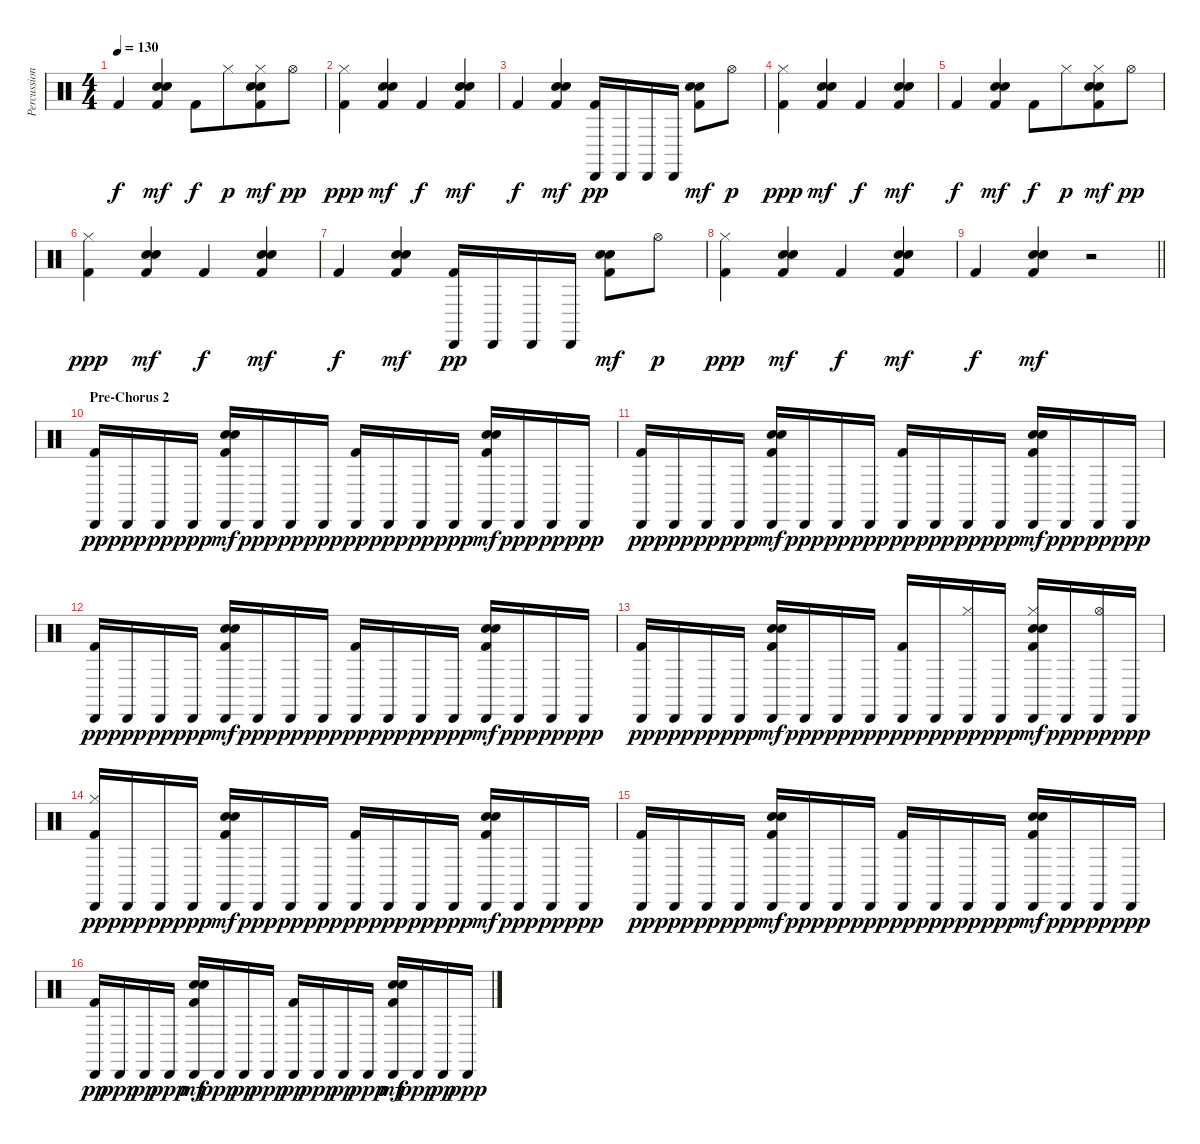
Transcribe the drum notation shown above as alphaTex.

\track ("Percussion" "Percussion") {instrument percussion}
\staff {score}
\articulation defaults
\ts (4 4)
\tempo 130
\clef neutral
\ks aminor "Kick (hit) 2".4{dy f}
("Hand Clap (hit)" "Snare (hit) 2" "Kick (hit) 2").4{dy mf} "Kick (hit) 2".8{dy f} "Hi-Hat (closed)".8{dy p beam merge} ("Hi-Hat (closed)" "Hand Clap (hit)" "Snare (hit) 2" "Kick (hit) 2").8{dy mf} "Hi-Hat (open)".8{dy pp} |
("Hi-Hat (closed)" "Kick (hit) 2").4{dy ppp} ("Hand Clap (hit)" "Snare (hit) 2" "Kick (hit) 2").4{dy mf} "Kick (hit) 2".4{dy f} ("Hand Clap (hit)" "Snare (hit) 2" "Kick (hit) 2").4{dy mf} |
"Kick (hit) 2".4{dy f} ("Hand Clap (hit)" "Snare (hit) 2" "Kick (hit) 2").4{dy mf} ("Cabasa (hit)" "Kick (hit) 2").16{dy pp} "Cabasa (hit)".16 "Cabasa (hit)".16 "Cabasa (hit)".16 ("Hand Clap (hit)" "Snare (hit) 2" "Kick (hit) 2").8{dy mf} "Hi-Hat (open)".8{dy p} |
("Hi-Hat (closed)" "Kick (hit) 2").4{dy ppp} ("Hand Clap (hit)" "Snare (hit) 2" "Kick (hit) 2").4{dy mf} "Kick (hit) 2".4{dy f} ("Hand Clap (hit)" "Snare (hit) 2" "Kick (hit) 2").4{dy mf} |
"Kick (hit) 2".4{dy f} ("Hand Clap (hit)" "Snare (hit) 2" "Kick (hit) 2").4{dy mf} "Kick (hit) 2".8{dy f} "Hi-Hat (closed)".8{dy p beam merge} ("Hi-Hat (closed)" "Hand Clap (hit)" "Snare (hit) 2" "Kick (hit) 2").8{dy mf} "Hi-Hat (open)".8{dy pp} |
("Hi-Hat (closed)" "Kick (hit) 2").4{dy ppp} ("Hand Clap (hit)" "Snare (hit) 2" "Kick (hit) 2").4{dy mf} "Kick (hit) 2".4{dy f} ("Hand Clap (hit)" "Snare (hit) 2" "Kick (hit) 2").4{dy mf} |
"Kick (hit) 2".4{dy f} ("Hand Clap (hit)" "Snare (hit) 2" "Kick (hit) 2").4{dy mf} ("Cabasa (hit)" "Kick (hit) 2").16{dy pp} "Cabasa (hit)".16 "Cabasa (hit)".16 "Cabasa (hit)".16 ("Hand Clap (hit)" "Snare (hit) 2" "Kick (hit) 2").8{dy mf} "Hi-Hat (open)".8{dy p} |
("Hi-Hat (closed)" "Kick (hit) 2").4{dy ppp} ("Hand Clap (hit)" "Snare (hit) 2" "Kick (hit) 2").4{dy mf} "Kick (hit) 2".4{dy f} ("Hand Clap (hit)" "Snare (hit) 2" "Kick (hit) 2").4{dy mf} |
\barLineRight lightlight "Kick (hit) 2".4{dy f}
("Hand Clap (hit)" "Snare (hit) 2" "Kick (hit) 2").4{dy mf} r.2 |
\section ("" "Pre-Chorus 2")
("Cabasa (hit)" "Kick (hit) 2").16{dy pp} "Cabasa (hit)".16{dy ppp} "Cabasa (hit)".16{dy pp} "Cabasa (hit)".16{dy ppp} ("Cabasa (hit)" "Hand Clap (hit)" "Snare (hit) 2" "Kick (hit) 2").16{dy mf} "Cabasa (hit)".16{dy ppp} "Cabasa (hit)".16{dy pp} "Cabasa (hit)".16{dy ppp} ("Cabasa (hit)" "Kick (hit) 2").16{dy pp} "Cabasa (hit)".16{dy ppp} "Cabasa (hit)".16{dy pp} "Cabasa (hit)".16{dy ppp} ("Cabasa (hit)" "Hand Clap (hit)" "Snare (hit) 2" "Kick (hit) 2").16{dy mf} "Cabasa (hit)".16{dy ppp} "Cabasa (hit)".16{dy pp} "Cabasa (hit)".16{dy ppp} |
("Cabasa (hit)" "Kick (hit) 2").16{dy pp} "Cabasa (hit)".16{dy ppp} "Cabasa (hit)".16{dy pp} "Cabasa (hit)".16{dy ppp} ("Cabasa (hit)" "Hand Clap (hit)" "Snare (hit) 2" "Kick (hit) 2").16{dy mf} "Cabasa (hit)".16{dy ppp} "Cabasa (hit)".16{dy pp} "Cabasa (hit)".16{dy ppp} ("Cabasa (hit)" "Kick (hit) 2").16{dy pp} "Cabasa (hit)".16{dy ppp} "Cabasa (hit)".16{dy pp} "Cabasa (hit)".16{dy ppp} ("Cabasa (hit)" "Hand Clap (hit)" "Snare (hit) 2" "Kick (hit) 2").16{dy mf} "Cabasa (hit)".16{dy ppp} "Cabasa (hit)".16{dy pp} "Cabasa (hit)".16{dy ppp} |
("Cabasa (hit)" "Kick (hit) 2").16{dy pp} "Cabasa (hit)".16{dy ppp} "Cabasa (hit)".16{dy pp} "Cabasa (hit)".16{dy ppp} ("Cabasa (hit)" "Hand Clap (hit)" "Snare (hit) 2" "Kick (hit) 2").16{dy mf} "Cabasa (hit)".16{dy ppp} "Cabasa (hit)".16{dy pp} "Cabasa (hit)".16{dy ppp} ("Cabasa (hit)" "Kick (hit) 2").16{dy pp} "Cabasa (hit)".16{dy ppp} "Cabasa (hit)".16{dy pp} "Cabasa (hit)".16{dy ppp} ("Cabasa (hit)" "Hand Clap (hit)" "Snare (hit) 2" "Kick (hit) 2").16{dy mf} "Cabasa (hit)".16{dy ppp} "Cabasa (hit)".16{dy pp} "Cabasa (hit)".16{dy ppp} |
("Cabasa (hit)" "Kick (hit) 2").16{dy pp} "Cabasa (hit)".16{dy ppp} "Cabasa (hit)".16{dy pp} "Cabasa (hit)".16{dy ppp} ("Cabasa (hit)" "Hand Clap (hit)" "Snare (hit) 2" "Kick (hit) 2").16{dy mf} "Cabasa (hit)".16{dy ppp} "Cabasa (hit)".16{dy pp} "Cabasa (hit)".16{dy ppp} ("Cabasa (hit)" "Kick (hit) 2").16{dy pp} "Cabasa (hit)".16{dy ppp} ("Hi-Hat (closed)" "Cabasa (hit)").16{dy pp} "Cabasa (hit)".16{dy ppp} ("Hi-Hat (closed)" "Cabasa (hit)" "Hand Clap (hit)" "Snare (hit) 2" "Kick (hit) 2").16{dy mf} "Cabasa (hit)".16{dy ppp} ("Hi-Hat (open)" "Cabasa (hit)").16{dy pp} "Cabasa (hit)".16{dy ppp} |
("Hi-Hat (closed)" "Cabasa (hit)" "Kick (hit) 2").16{dy pp} "Cabasa (hit)".16{dy ppp} "Cabasa (hit)".16{dy pp} "Cabasa (hit)".16{dy ppp} ("Cabasa (hit)" "Hand Clap (hit)" "Snare (hit) 2" "Kick (hit) 2").16{dy mf} "Cabasa (hit)".16{dy ppp} "Cabasa (hit)".16{dy pp} "Cabasa (hit)".16{dy ppp} ("Cabasa (hit)" "Kick (hit) 2").16{dy pp} "Cabasa (hit)".16{dy ppp} "Cabasa (hit)".16{dy pp} "Cabasa (hit)".16{dy ppp} ("Cabasa (hit)" "Hand Clap (hit)" "Snare (hit) 2" "Kick (hit) 2").16{dy mf} "Cabasa (hit)".16{dy ppp} "Cabasa (hit)".16{dy pp} "Cabasa (hit)".16{dy ppp} |
("Cabasa (hit)" "Kick (hit) 2").16{dy pp} "Cabasa (hit)".16{dy ppp} "Cabasa (hit)".16{dy pp} "Cabasa (hit)".16{dy ppp} ("Cabasa (hit)" "Hand Clap (hit)" "Snare (hit) 2" "Kick (hit) 2").16{dy mf} "Cabasa (hit)".16{dy ppp} "Cabasa (hit)".16{dy pp} "Cabasa (hit)".16{dy ppp} ("Cabasa (hit)" "Kick (hit) 2").16{dy pp} "Cabasa (hit)".16{dy ppp} "Cabasa (hit)".16{dy pp} "Cabasa (hit)".16{dy ppp} ("Cabasa (hit)" "Hand Clap (hit)" "Snare (hit) 2" "Kick (hit) 2").16{dy mf} "Cabasa (hit)".16{dy ppp} "Cabasa (hit)".16{dy pp} "Cabasa (hit)".16{dy ppp} |
("Cabasa (hit)" "Kick (hit) 2").16{dy pp} "Cabasa (hit)".16{dy ppp} "Cabasa (hit)".16{dy pp} "Cabasa (hit)".16{dy ppp} ("Cabasa (hit)" "Hand Clap (hit)" "Snare (hit) 2" "Kick (hit) 2").16{dy mf} "Cabasa (hit)".16{dy ppp} "Cabasa (hit)".16{dy pp} "Cabasa (hit)".16{dy ppp} ("Cabasa (hit)" "Kick (hit) 2").16{dy pp} "Cabasa (hit)".16{dy ppp} "Cabasa (hit)".16{dy pp} "Cabasa (hit)".16{dy ppp} ("Cabasa (hit)" "Hand Clap (hit)" "Snare (hit) 2" "Kick (hit) 2").16{dy mf} "Cabasa (hit)".16{dy ppp} "Cabasa (hit)".16{dy pp} "Cabasa (hit)".16{dy ppp}
